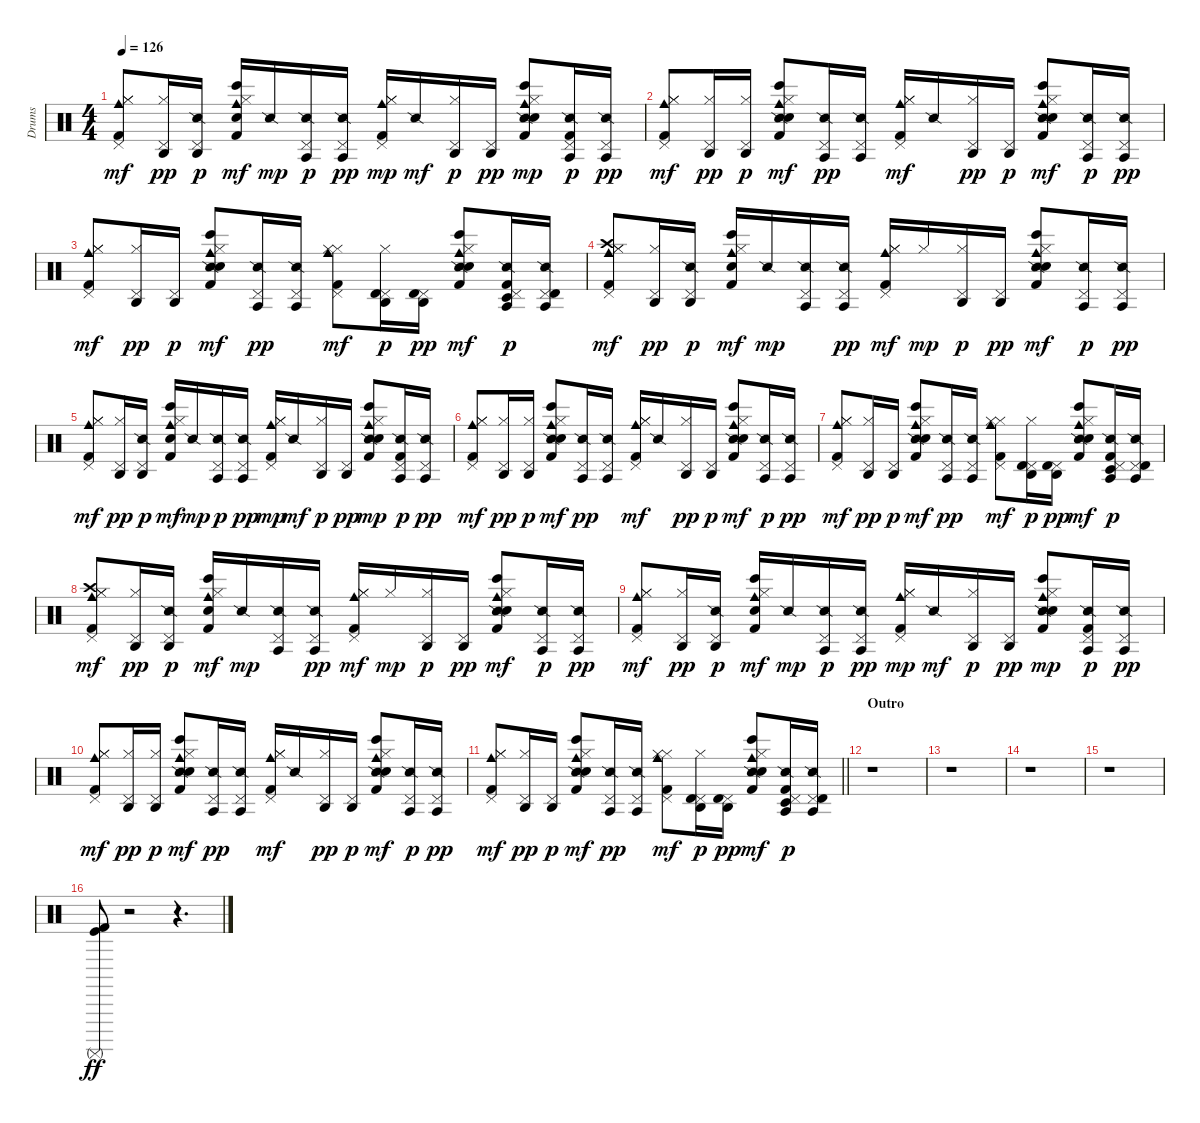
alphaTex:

\track ("Drums" "Drums") {instrument percussion}
\staff {score}
\articulation defaults
\ts (4 4)
\tempo 126
\clef neutral
\ks c
("Hi-Hat (closed)" "Kick (hit) 2" "Hi-Hat (closed)" "Pedal Hi-Hat (hit)" "Cowbell medium (hit)").8{dy mf} ("Hi-Hat (closed)" "Pedal Hi-Hat (hit)" "Agogo high (hit)").16{dy pp} ("Snare (side stick) 2" "Pedal Hi-Hat (hit)" "Agogo high (hit)").16{dy p} ("Bongo High (hit)" "Kick (hit) 2" "Hand Clap (hit)" "Hi-Hat (closed)" "Cowbell medium (hit)").16{dy mf} "Snare (side stick) 2".16{dy mp} ("Snare (side stick) 2" "Pedal Hi-Hat (hit)" "Agogo tow (hit)").16{dy p} ("Snare (side stick) 2" "Pedal Hi-Hat (hit)" "Agogo tow (hit)").16{dy pp} ("Hi-Hat (closed)" "Kick (hit) 2" "Hi-Hat (closed)" "Pedal Hi-Hat (hit)" "Cowbell medium (hit)").16{dy mp} "Snare (side stick) 2".16{dy mf} ("Hi-Hat (closed)" "Pedal Hi-Hat (hit)" "Agogo high (hit)").16{dy p} ("Pedal Hi-Hat (hit)" "Agogo high (hit)").16{dy pp} ("Bongo High (hit)" "Snare (side stick) 2" "Kick (hit) 2" "Hand Clap (hit)" "Hi-Hat (closed)" "Cowbell medium (hit)").8{dy mp} ("Snare (side stick) 2" "Kick (hit) 2" "Pedal Hi-Hat (hit)" "Agogo tow (hit)").16{dy p} ("Snare (side stick) 2" "Pedal Hi-Hat (hit)" "Agogo tow (hit)").16{dy pp} |
("Hi-Hat (closed)" "Kick (hit) 2" "Hi-Hat (closed)" "Pedal Hi-Hat (hit)" "Cowbell medium (hit)").8{dy mf} ("Hi-Hat (closed)" "Pedal Hi-Hat (hit)" "Agogo high (hit)").16{dy pp} ("Hi-Hat (closed)" "Pedal Hi-Hat (hit)" "Agogo high (hit)").16{dy p} ("Bongo High (hit)" "Snare (side stick) 2" "Kick (hit) 2" "Hand Clap (hit)" "Hi-Hat (closed)" "Cowbell medium (hit)").8{dy mf} ("Snare (side stick) 2" "Pedal Hi-Hat (hit)" "Agogo tow (hit)").16{dy pp} ("Snare (side stick) 2" "Pedal Hi-Hat (hit)" "Agogo tow (hit)").16 ("Hi-Hat (closed)" "Kick (hit) 2" "Hi-Hat (closed)" "Pedal Hi-Hat (hit)" "Cowbell medium (hit)").16{dy mf} "Snare (side stick) 2".16 ("Hi-Hat (closed)" "Pedal Hi-Hat (hit)" "Agogo high (hit)").16{dy pp} ("Pedal Hi-Hat (hit)" "Agogo high (hit)").16{dy p} ("Bongo High (hit)" "Snare (side stick) 2" "Kick (hit) 2" "Hand Clap (hit)" "Hi-Hat (closed)" "Cowbell medium (hit)").8{dy mf} ("Snare (side stick) 2" "Pedal Hi-Hat (hit)" "Agogo tow (hit)").16{dy p} ("Snare (side stick) 2" "Pedal Hi-Hat (hit)" "Agogo tow (hit)").16{dy pp} |
("Hi-Hat (closed)" "Kick (hit) 2" "Hi-Hat (closed)" "Pedal Hi-Hat (hit)" "Cowbell medium (hit)").8{dy mf} ("Hi-Hat (closed)" "Pedal Hi-Hat (hit)" "Agogo high (hit)").16{dy pp} ("Pedal Hi-Hat (hit)" "Agogo high (hit)").16{dy p} ("Bongo High (hit)" "Snare (side stick) 2" "Kick (hit) 2" "Hand Clap (hit)" "Hi-Hat (closed)" "Cowbell medium (hit)").8{dy mf} ("Snare (side stick) 2" "Pedal Hi-Hat (hit)" "Agogo tow (hit)").16{dy pp} ("Snare (side stick) 2" "Pedal Hi-Hat (hit)" "Agogo tow (hit)").16 ("Hi-Hat (closed)" "Kick (hit) 2" "Hi-Hat (closed)" "Pedal Hi-Hat (hit)" "Cowbell medium (hit)").8{dy mf} ("Hi-Hat (closed)" "Pedal Hi-Hat (hit)" "Timbale high (hit)" "Agogo high (hit)").16{dy p} ("Pedal Hi-Hat (hit)" "Timbale high (hit)" "Agogo high (hit)").16{dy pp} ("Bongo High (hit)" "Snare (side stick) 2" "Kick (hit) 2" "Hand Clap (hit)" "Hi-Hat (closed)" "Cowbell medium (hit)").8{dy mf} ("Snare (side stick) 2" "Kick (hit) 2" "Pedal Hi-Hat (hit)" "Timbale low (hit)" "Agogo tow (hit)").16{dy p} ("Snare (side stick) 2" "Pedal Hi-Hat (hit)" "Timbale high (hit)" "Agogo tow (hit)").16 |
("Hi-Hat (closed)" "Kick (hit) 2" "Hi-Hat (closed)" "Pedal Hi-Hat (hit)" "Crash high (hit)" "Cowbell medium (hit)").8{dy mf} ("Hi-Hat (closed)" "Pedal Hi-Hat (hit)" "Agogo high (hit)").16{dy pp} ("Snare (side stick) 2" "Pedal Hi-Hat (hit)" "Agogo high (hit)").16{dy p} ("Bongo High (hit)" "Kick (hit) 2" "Hand Clap (hit)" "Hi-Hat (closed)" "Cowbell medium (hit)").16{dy mf} "Snare (side stick) 2".16{dy mp} ("Snare (side stick) 2" "Pedal Hi-Hat (hit)" "Agogo tow (hit)").16 ("Snare (side stick) 2" "Pedal Hi-Hat (hit)" "Agogo tow (hit)").16{dy pp} ("Hi-Hat (closed)" "Kick (hit) 2" "Hi-Hat (closed)" "Pedal Hi-Hat (hit)" "Cowbell medium (hit)").16{dy mf} "Hi-Hat (closed)".16{dy mp} ("Hi-Hat (closed)" "Pedal Hi-Hat (hit)" "Agogo high (hit)").16{dy p} ("Pedal Hi-Hat (hit)" "Agogo high (hit)").16{dy pp} ("Bongo High (hit)" "Snare (side stick) 2" "Kick (hit) 2" "Hand Clap (hit)" "Hi-Hat (closed)" "Cowbell medium (hit)").8{dy mf} ("Snare (side stick) 2" "Pedal Hi-Hat (hit)" "Agogo tow (hit)").16{dy p} ("Snare (side stick) 2" "Pedal Hi-Hat (hit)" "Agogo tow (hit)").16{dy pp} |
("Hi-Hat (closed)" "Kick (hit) 2" "Hi-Hat (closed)" "Pedal Hi-Hat (hit)" "Cowbell medium (hit)").8{dy mf} ("Hi-Hat (closed)" "Pedal Hi-Hat (hit)" "Agogo high (hit)").16{dy pp} ("Snare (side stick) 2" "Pedal Hi-Hat (hit)" "Agogo high (hit)").16{dy p} ("Bongo High (hit)" "Kick (hit) 2" "Hand Clap (hit)" "Hi-Hat (closed)" "Cowbell medium (hit)").16{dy mf} "Snare (side stick) 2".16{dy mp} ("Snare (side stick) 2" "Pedal Hi-Hat (hit)" "Agogo tow (hit)").16{dy p} ("Snare (side stick) 2" "Pedal Hi-Hat (hit)" "Agogo tow (hit)").16{dy pp} ("Hi-Hat (closed)" "Kick (hit) 2" "Hi-Hat (closed)" "Pedal Hi-Hat (hit)" "Cowbell medium (hit)").16{dy mp} "Snare (side stick) 2".16{dy mf} ("Hi-Hat (closed)" "Pedal Hi-Hat (hit)" "Agogo high (hit)").16{dy p} ("Pedal Hi-Hat (hit)" "Agogo high (hit)").16{dy pp} ("Bongo High (hit)" "Snare (side stick) 2" "Kick (hit) 2" "Hand Clap (hit)" "Hi-Hat (closed)" "Cowbell medium (hit)").8{dy mp} ("Snare (side stick) 2" "Kick (hit) 2" "Pedal Hi-Hat (hit)" "Agogo tow (hit)").16{dy p} ("Snare (side stick) 2" "Pedal Hi-Hat (hit)" "Agogo tow (hit)").16{dy pp} |
("Hi-Hat (closed)" "Kick (hit) 2" "Hi-Hat (closed)" "Pedal Hi-Hat (hit)" "Cowbell medium (hit)").8{dy mf} ("Hi-Hat (closed)" "Pedal Hi-Hat (hit)" "Agogo high (hit)").16{dy pp} ("Hi-Hat (closed)" "Pedal Hi-Hat (hit)" "Agogo high (hit)").16{dy p} ("Bongo High (hit)" "Snare (side stick) 2" "Kick (hit) 2" "Hand Clap (hit)" "Hi-Hat (closed)" "Cowbell medium (hit)").8{dy mf} ("Snare (side stick) 2" "Pedal Hi-Hat (hit)" "Agogo tow (hit)").16{dy pp} ("Snare (side stick) 2" "Pedal Hi-Hat (hit)" "Agogo tow (hit)").16 ("Hi-Hat (closed)" "Kick (hit) 2" "Hi-Hat (closed)" "Pedal Hi-Hat (hit)" "Cowbell medium (hit)").16{dy mf} "Snare (side stick) 2".16 ("Hi-Hat (closed)" "Pedal Hi-Hat (hit)" "Agogo high (hit)").16{dy pp} ("Pedal Hi-Hat (hit)" "Agogo high (hit)").16{dy p} ("Bongo High (hit)" "Snare (side stick) 2" "Kick (hit) 2" "Hand Clap (hit)" "Hi-Hat (closed)" "Cowbell medium (hit)").8{dy mf} ("Snare (side stick) 2" "Pedal Hi-Hat (hit)" "Agogo tow (hit)").16{dy p} ("Snare (side stick) 2" "Pedal Hi-Hat (hit)" "Agogo tow (hit)").16{dy pp} |
("Hi-Hat (closed)" "Kick (hit) 2" "Hi-Hat (closed)" "Pedal Hi-Hat (hit)" "Cowbell medium (hit)").8{dy mf} ("Hi-Hat (closed)" "Pedal Hi-Hat (hit)" "Agogo high (hit)").16{dy pp} ("Pedal Hi-Hat (hit)" "Agogo high (hit)").16{dy p} ("Bongo High (hit)" "Snare (side stick) 2" "Kick (hit) 2" "Hand Clap (hit)" "Hi-Hat (closed)" "Cowbell medium (hit)").8{dy mf} ("Snare (side stick) 2" "Pedal Hi-Hat (hit)" "Agogo tow (hit)").16{dy pp} ("Snare (side stick) 2" "Pedal Hi-Hat (hit)" "Agogo tow (hit)").16 ("Hi-Hat (closed)" "Kick (hit) 2" "Hi-Hat (closed)" "Pedal Hi-Hat (hit)" "Cowbell medium (hit)").8{dy mf} ("Hi-Hat (closed)" "Pedal Hi-Hat (hit)" "Timbale high (hit)" "Agogo high (hit)").16{dy p} ("Pedal Hi-Hat (hit)" "Timbale high (hit)" "Agogo high (hit)").16{dy pp} ("Bongo High (hit)" "Snare (side stick) 2" "Kick (hit) 2" "Hand Clap (hit)" "Hi-Hat (closed)" "Cowbell medium (hit)").8{dy mf} ("Snare (side stick) 2" "Kick (hit) 2" "Pedal Hi-Hat (hit)" "Timbale low (hit)" "Agogo tow (hit)").16{dy p} ("Snare (side stick) 2" "Pedal Hi-Hat (hit)" "Timbale high (hit)" "Agogo tow (hit)").16 |
("Hi-Hat (closed)" "Kick (hit) 2" "Hi-Hat (closed)" "Pedal Hi-Hat (hit)" "Crash high (hit)" "Cowbell medium (hit)").8{dy mf} ("Hi-Hat (closed)" "Pedal Hi-Hat (hit)" "Agogo high (hit)").16{dy pp} ("Snare (side stick) 2" "Pedal Hi-Hat (hit)" "Agogo high (hit)").16{dy p} ("Bongo High (hit)" "Kick (hit) 2" "Hand Clap (hit)" "Hi-Hat (closed)" "Cowbell medium (hit)").16{dy mf} "Snare (side stick) 2".16{dy mp} ("Snare (side stick) 2" "Pedal Hi-Hat (hit)" "Agogo tow (hit)").16 ("Snare (side stick) 2" "Pedal Hi-Hat (hit)" "Agogo tow (hit)").16{dy pp} ("Hi-Hat (closed)" "Kick (hit) 2" "Hi-Hat (closed)" "Pedal Hi-Hat (hit)" "Cowbell medium (hit)").16{dy mf} "Hi-Hat (closed)".16{dy mp} ("Hi-Hat (closed)" "Pedal Hi-Hat (hit)" "Agogo high (hit)").16{dy p} ("Pedal Hi-Hat (hit)" "Agogo high (hit)").16{dy pp} ("Bongo High (hit)" "Snare (side stick) 2" "Kick (hit) 2" "Hand Clap (hit)" "Hi-Hat (closed)" "Cowbell medium (hit)").8{dy mf} ("Snare (side stick) 2" "Pedal Hi-Hat (hit)" "Agogo tow (hit)").16{dy p} ("Snare (side stick) 2" "Pedal Hi-Hat (hit)" "Agogo tow (hit)").16{dy pp} |
("Hi-Hat (closed)" "Kick (hit) 2" "Hi-Hat (closed)" "Pedal Hi-Hat (hit)" "Cowbell medium (hit)").8{dy mf} ("Hi-Hat (closed)" "Pedal Hi-Hat (hit)" "Agogo high (hit)").16{dy pp} ("Snare (side stick) 2" "Pedal Hi-Hat (hit)" "Agogo high (hit)").16{dy p} ("Bongo High (hit)" "Kick (hit) 2" "Hand Clap (hit)" "Hi-Hat (closed)" "Cowbell medium (hit)").16{dy mf} "Snare (side stick) 2".16{dy mp} ("Snare (side stick) 2" "Pedal Hi-Hat (hit)" "Agogo tow (hit)").16{dy p} ("Snare (side stick) 2" "Pedal Hi-Hat (hit)" "Agogo tow (hit)").16{dy pp} ("Hi-Hat (closed)" "Kick (hit) 2" "Hi-Hat (closed)" "Pedal Hi-Hat (hit)" "Cowbell medium (hit)").16{dy mp} "Snare (side stick) 2".16{dy mf} ("Hi-Hat (closed)" "Pedal Hi-Hat (hit)" "Agogo high (hit)").16{dy p} ("Pedal Hi-Hat (hit)" "Agogo high (hit)").16{dy pp} ("Bongo High (hit)" "Snare (side stick) 2" "Kick (hit) 2" "Hand Clap (hit)" "Hi-Hat (closed)" "Cowbell medium (hit)").8{dy mp} ("Snare (side stick) 2" "Kick (hit) 2" "Pedal Hi-Hat (hit)" "Agogo tow (hit)").16{dy p} ("Snare (side stick) 2" "Pedal Hi-Hat (hit)" "Agogo tow (hit)").16{dy pp} |
("Hi-Hat (closed)" "Kick (hit) 2" "Hi-Hat (closed)" "Pedal Hi-Hat (hit)" "Cowbell medium (hit)").8{dy mf} ("Hi-Hat (closed)" "Pedal Hi-Hat (hit)" "Agogo high (hit)").16{dy pp} ("Hi-Hat (closed)" "Pedal Hi-Hat (hit)" "Agogo high (hit)").16{dy p} ("Bongo High (hit)" "Snare (side stick) 2" "Kick (hit) 2" "Hand Clap (hit)" "Hi-Hat (closed)" "Cowbell medium (hit)").8{dy mf} ("Snare (side stick) 2" "Pedal Hi-Hat (hit)" "Agogo tow (hit)").16{dy pp} ("Snare (side stick) 2" "Pedal Hi-Hat (hit)" "Agogo tow (hit)").16 ("Hi-Hat (closed)" "Kick (hit) 2" "Hi-Hat (closed)" "Pedal Hi-Hat (hit)" "Cowbell medium (hit)").16{dy mf} "Snare (side stick) 2".16 ("Hi-Hat (closed)" "Pedal Hi-Hat (hit)" "Agogo high (hit)").16{dy pp} ("Pedal Hi-Hat (hit)" "Agogo high (hit)").16{dy p} ("Bongo High (hit)" "Snare (side stick) 2" "Kick (hit) 2" "Hand Clap (hit)" "Hi-Hat (closed)" "Cowbell medium (hit)").8{dy mf} ("Snare (side stick) 2" "Pedal Hi-Hat (hit)" "Agogo tow (hit)").16{dy p} ("Snare (side stick) 2" "Pedal Hi-Hat (hit)" "Agogo tow (hit)").16{dy pp} |
\barLineRight lightlight
("Hi-Hat (closed)" "Kick (hit) 2" "Hi-Hat (closed)" "Pedal Hi-Hat (hit)" "Cowbell medium (hit)").8{dy mf} ("Hi-Hat (closed)" "Pedal Hi-Hat (hit)" "Agogo high (hit)").16{dy pp} ("Pedal Hi-Hat (hit)" "Agogo high (hit)").16{dy p} ("Bongo High (hit)" "Snare (side stick) 2" "Kick (hit) 2" "Hand Clap (hit)" "Hi-Hat (closed)" "Cowbell medium (hit)").8{dy mf} ("Snare (side stick) 2" "Pedal Hi-Hat (hit)" "Agogo tow (hit)").16{dy pp} ("Snare (side stick) 2" "Pedal Hi-Hat (hit)" "Agogo tow (hit)").16 ("Hi-Hat (closed)" "Kick (hit) 2" "Hi-Hat (closed)" "Pedal Hi-Hat (hit)" "Cowbell medium (hit)").8{dy mf} ("Hi-Hat (closed)" "Pedal Hi-Hat (hit)" "Timbale high (hit)" "Agogo high (hit)").16{dy p} ("Pedal Hi-Hat (hit)" "Timbale high (hit)" "Agogo high (hit)").16{dy pp} ("Bongo High (hit)" "Snare (side stick) 2" "Kick (hit) 2" "Hand Clap (hit)" "Hi-Hat (closed)" "Cowbell medium (hit)").8{dy mf} ("Snare (side stick) 2" "Kick (hit) 2" "Pedal Hi-Hat (hit)" "Timbale low (hit)" "Agogo tow (hit)").16{dy p} ("Snare (side stick) 2" "Pedal Hi-Hat (hit)" "Timbale high (hit)" "Agogo tow (hit)").16 |
\section ("" "Outro")
r.1 |
r.1 |
r.1 |
r.1 |
("Kick (hit)" "Kick (hit) 2" "Surdo (mute)").8{dy ff} r.2 r.4{d}
